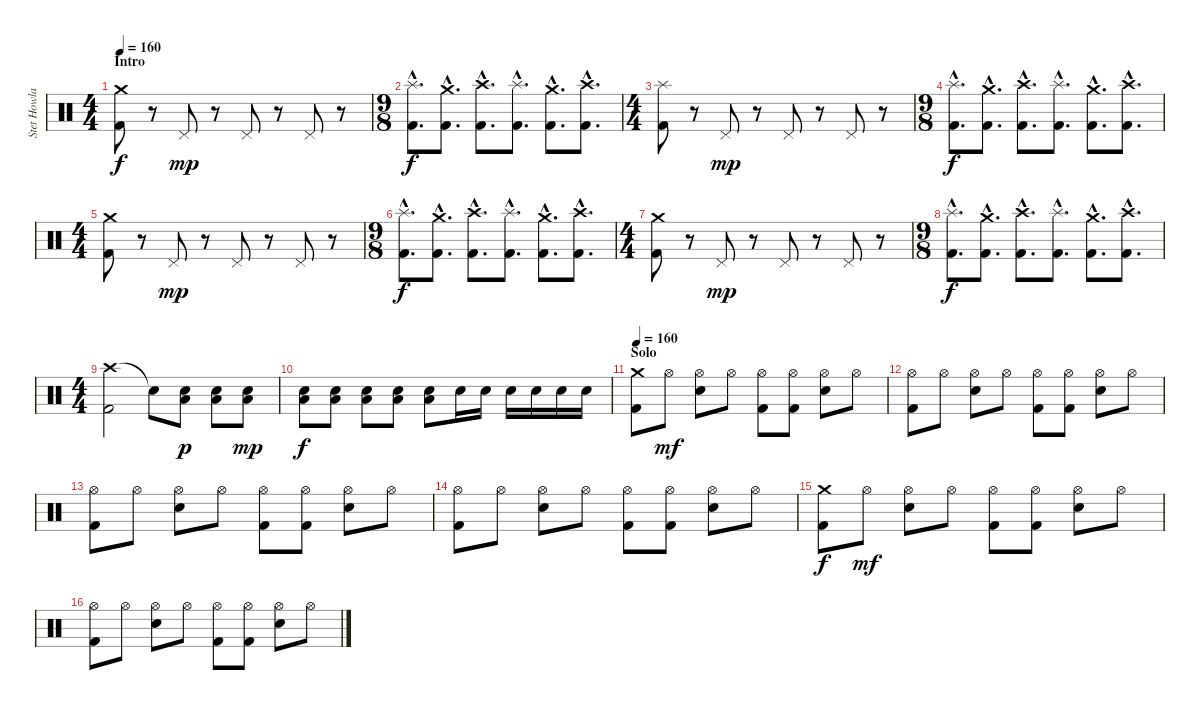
\track ("Stet Howland" "Stet Howla") {instrument percussion}
\staff {score}
\articulation defaults
\ts (4 4)
\section ("" "Intro")
\tempo 160
\clef neutral
\ks c
("Crash medium (hit)" "Kick (hit) 2").8{dy f} r.8 "Pedal Hi-Hat (hit)".8{dy mp} r.8 "Pedal Hi-Hat (hit)".8 r.8 "Pedal Hi-Hat (hit)".8 r.8 |
\ts (9 8)
("Splash (hit)"{hac} "Kick (hit) 2"{hac}).8{d dy f} ("Crash medium (hit)"{hac} "Kick (hit) 2"{hac}).8{d} ("Crash high (hit)"{hac} "Kick (hit) 2"{hac}).8{d} ("Splash (hit)"{hac} "Kick (hit) 2"{hac}).8{d} ("Crash medium (hit)"{hac} "Kick (hit) 2"{hac}).8{d} ("Crash high (hit)"{hac} "Kick (hit) 2"{hac}).8{d} |
\ts (4 4)
("Splash (hit)" "Kick (hit) 2").8 r.8 "Pedal Hi-Hat (hit)".8{dy mp} r.8 "Pedal Hi-Hat (hit)".8 r.8 "Pedal Hi-Hat (hit)".8 r.8 |
\ts (9 8)
("Splash (hit)"{hac} "Kick (hit) 2"{hac}).8{d dy f} ("Crash medium (hit)"{hac} "Kick (hit) 2"{hac}).8{d} ("Crash high (hit)"{hac} "Kick (hit) 2"{hac}).8{d} ("Splash (hit)"{hac} "Kick (hit) 2"{hac}).8{d} ("Crash medium (hit)"{hac} "Kick (hit) 2"{hac}).8{d} ("Crash high (hit)"{hac} "Kick (hit) 2"{hac}).8{d} |
\ts (4 4)
("Crash medium (hit)" "Kick (hit) 2").8 r.8 "Pedal Hi-Hat (hit)".8{dy mp} r.8 "Pedal Hi-Hat (hit)".8 r.8 "Pedal Hi-Hat (hit)".8 r.8 |
\ts (9 8)
("Splash (hit)"{hac} "Kick (hit) 2"{hac}).8{d dy f} ("Crash medium (hit)"{hac} "Kick (hit) 2"{hac}).8{d} ("Crash high (hit)"{hac} "Kick (hit) 2"{hac}).8{d} ("Splash (hit)"{hac} "Kick (hit) 2"{hac}).8{d} ("Crash medium (hit)"{hac} "Kick (hit) 2"{hac}).8{d} ("Crash high (hit)"{hac} "Kick (hit) 2"{hac}).8{d} |
\ts (4 4)
("Crash medium (hit)" "Kick (hit) 2").8 r.8 "Pedal Hi-Hat (hit)".8{dy mp} r.8 "Pedal Hi-Hat (hit)".8 r.8 "Pedal Hi-Hat (hit)".8 r.8 |
\ts (9 8)
("Splash (hit)"{hac} "Kick (hit) 2"{hac}).8{d dy f} ("Crash medium (hit)"{hac} "Kick (hit) 2"{hac}).8{d} ("Crash high (hit)"{hac} "Kick (hit) 2"{hac}).8{d} ("Splash (hit)"{hac} "Kick (hit) 2"{hac}).8{d} ("Crash medium (hit)"{hac} "Kick (hit) 2"{hac}).8{d} ("Crash high (hit)"{hac} "Kick (hit) 2"{hac}).8{d} |
\ts (4 4)
("Crash high (hit)" "Kick (hit) 2").2 "Snare (hit)"{t}.8 ("Low Floor Tom (hit)" "Electric Snare (hit)").8{dy p} ("Low Floor Tom (hit)" "Electric Snare (hit)").8 ("Low Floor Tom (hit)" "Electric Snare (hit)").8{dy mp} |
("Low Floor Tom (hit)" "Electric Snare (hit)").8{dy f} ("Low Floor Tom (hit)" "Electric Snare (hit)").8 ("Low Floor Tom (hit)" "Electric Snare (hit)").8 ("Low Floor Tom (hit)" "Electric Snare (hit)").8 ("Low Floor Tom (hit)" "Electric Snare (hit)").8 "Electric Snare (hit)".16 "Electric Snare (hit)".16 "Electric Snare (hit)".16 "Electric Snare (hit)".16 "Electric Snare (hit)".16 "Electric Snare (hit)".16 |
\section ("" "Solo")
\tempo 160
("Crash medium (hit)" "Kick (hit) 2").8 "Hi-Hat (open)".8{dy mf} ("Hi-Hat (open)" "Electric Snare (hit)").8 "Hi-Hat (open)".8 ("Hi-Hat (open)" "Kick (hit) 2").8 ("Hi-Hat (open)" "Kick (hit) 2").8 ("Hi-Hat (open)" "Electric Snare (hit)").8 "Hi-Hat (open)".8 |
("Hi-Hat (open)" "Kick (hit) 2").8 "Hi-Hat (open)".8 ("Hi-Hat (open)" "Electric Snare (hit)").8 "Hi-Hat (open)".8 ("Hi-Hat (open)" "Kick (hit) 2").8 ("Hi-Hat (open)" "Kick (hit) 2").8 ("Hi-Hat (open)" "Electric Snare (hit)").8 "Hi-Hat (open)".8 |
("Hi-Hat (open)" "Kick (hit) 2").8 "Hi-Hat (open)".8 ("Hi-Hat (open)" "Electric Snare (hit)").8 "Hi-Hat (open)".8 ("Hi-Hat (open)" "Kick (hit) 2").8 ("Hi-Hat (open)" "Kick (hit) 2").8 ("Hi-Hat (open)" "Electric Snare (hit)").8 "Hi-Hat (open)".8 |
("Hi-Hat (open)" "Kick (hit) 2").8 "Hi-Hat (open)".8 ("Hi-Hat (open)" "Electric Snare (hit)").8 "Hi-Hat (open)".8 ("Hi-Hat (open)" "Kick (hit) 2").8 ("Hi-Hat (open)" "Kick (hit) 2").8 ("Hi-Hat (open)" "Electric Snare (hit)").8 "Hi-Hat (open)".8 |
("Crash medium (hit)" "Kick (hit) 2").8{dy f} "Hi-Hat (open)".8{dy mf} ("Hi-Hat (open)" "Electric Snare (hit)").8 "Hi-Hat (open)".8 ("Hi-Hat (open)" "Kick (hit) 2").8 ("Hi-Hat (open)" "Kick (hit) 2").8 ("Hi-Hat (open)" "Electric Snare (hit)").8 "Hi-Hat (open)".8 |
("Hi-Hat (open)" "Kick (hit) 2").8 "Hi-Hat (open)".8 ("Hi-Hat (open)" "Electric Snare (hit)").8 "Hi-Hat (open)".8 ("Hi-Hat (open)" "Kick (hit) 2").8 ("Hi-Hat (open)" "Kick (hit) 2").8 ("Hi-Hat (open)" "Electric Snare (hit)").8 "Hi-Hat (open)".8
